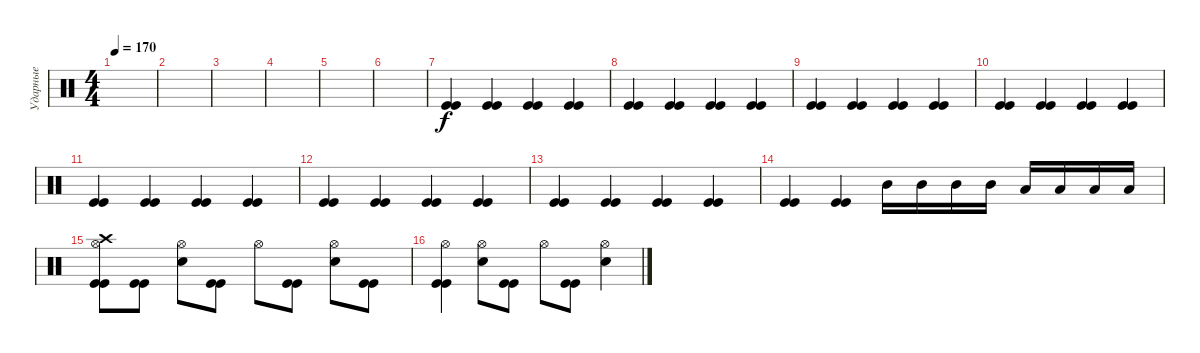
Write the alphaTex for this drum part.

\track ("Ударные" "Ударные") {instrument percussion}
\staff {score}
\articulation defaults
\ts (4 4)
\tempo 170
\clef neutral
\ks c
|
|
|
|
|
|
("Kick (hit)" "Kick (hit)").4 ("Kick (hit)" "Kick (hit)").4 ("Kick (hit)" "Kick (hit)").4 ("Kick (hit)" "Kick (hit)").4 |
("Kick (hit)" "Kick (hit)").4 ("Kick (hit)" "Kick (hit)").4 ("Kick (hit)" "Kick (hit)").4 ("Kick (hit)" "Kick (hit)").4 |
("Kick (hit)" "Kick (hit)").4 ("Kick (hit)" "Kick (hit)").4 ("Kick (hit)" "Kick (hit)").4 ("Kick (hit)" "Kick (hit)").4 |
("Kick (hit)" "Kick (hit)").4 ("Kick (hit)" "Kick (hit)").4 ("Kick (hit)" "Kick (hit)").4 ("Kick (hit)" "Kick (hit)").4 |
("Kick (hit)" "Kick (hit)").4 ("Kick (hit)" "Kick (hit)").4 ("Kick (hit)" "Kick (hit)").4 ("Kick (hit)" "Kick (hit)").4 |
("Kick (hit)" "Kick (hit)").4 ("Kick (hit)" "Kick (hit)").4 ("Kick (hit)" "Kick (hit)").4 ("Kick (hit)" "Kick (hit)").4 |
("Kick (hit)" "Kick (hit)").4 ("Kick (hit)" "Kick (hit)").4 ("Kick (hit)" "Kick (hit)").4 ("Kick (hit)" "Kick (hit)").4 |
("Kick (hit)" "Kick (hit)").4 ("Kick (hit)" "Kick (hit)").4 "Mid Tom (hit)".16 "Mid Tom (hit)".16 "Mid Tom (hit)".16 "Mid Tom (hit)".16 "Low Tom (hit)".16 "Low Tom (hit)".16 "Low Tom (hit)".16 "Low Tom (hit)".16 |
("Crash high (hit)" "Hi-Hat (open)" "Kick (hit)" "Kick (hit)").8 ("Kick (hit)" "Kick (hit)").8 ("Hi-Hat (open)" "Electric Snare (hit)").8 ("Kick (hit)" "Kick (hit)").8 "Hi-Hat (open)".8 ("Kick (hit)" "Kick (hit)").8 ("Hi-Hat (open)" "Electric Snare (hit)").8 ("Kick (hit)" "Kick (hit)").8 |
("Hi-Hat (open)" "Kick (hit)" "Kick (hit)").4 ("Hi-Hat (open)" "Electric Snare (hit)").8 ("Kick (hit)" "Kick (hit)").8 "Hi-Hat (open)".8 ("Kick (hit)" "Kick (hit)").8 ("Hi-Hat (open)" "Electric Snare (hit)").4
